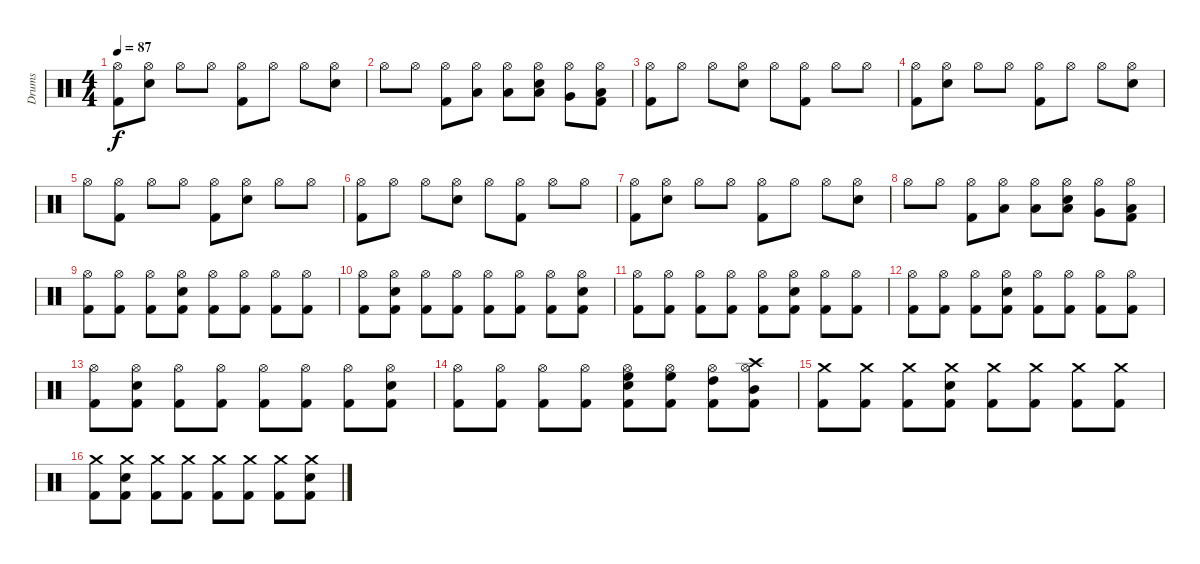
\track ("Drums" "Drums") {instrument percussion}
\staff {score}
\articulation defaults
\ts (4 4)
\tempo 87
\clef neutral
\ks c
("Hi-Hat (open)" "Kick (hit) 2").8{dy f} ("Hi-Hat (open)" "Electric Snare (hit)").8 "Hi-Hat (open)".8 "Hi-Hat (open)".8 ("Hi-Hat (open)" "Kick (hit) 2").8 "Hi-Hat (open)".8 "Hi-Hat (open)".8 ("Hi-Hat (open)" "Electric Snare (hit)").8 |
"Hi-Hat (open)".8 "Hi-Hat (open)".8 ("Hi-Hat (open)" "Kick (hit) 2").8 ("Hi-Hat (open)" "Low Floor Tom (hit)").8 ("Hi-Hat (open)" "Low Floor Tom (hit)").8 ("Hi-Hat (open)" "Electric Snare (hit)" "Low Floor Tom (hit)").8 ("Hi-Hat (open)" "Very Low Tom (hit)").8 ("Hi-Hat (open)" "Kick (hit) 2" "Low Tom (hit)").8 |
("Hi-Hat (open)" "Kick (hit) 2").8 "Hi-Hat (open)".8 "Hi-Hat (open)".8 ("Hi-Hat (open)" "Electric Snare (hit)").8 "Hi-Hat (open)".8 ("Hi-Hat (open)" "Kick (hit) 2").8 "Hi-Hat (open)".8 "Hi-Hat (open)".8 |
("Hi-Hat (open)" "Kick (hit) 2").8 ("Hi-Hat (open)" "Electric Snare (hit)").8 "Hi-Hat (open)".8 "Hi-Hat (open)".8 ("Hi-Hat (open)" "Kick (hit) 2").8 "Hi-Hat (open)".8 "Hi-Hat (open)".8 ("Hi-Hat (open)" "Electric Snare (hit)").8 |
"Hi-Hat (open)".8 ("Hi-Hat (open)" "Kick (hit) 2").8 "Hi-Hat (open)".8 "Hi-Hat (open)".8 ("Hi-Hat (open)" "Kick (hit) 2").8 ("Hi-Hat (open)" "Electric Snare (hit)").8 "Hi-Hat (open)".8 "Hi-Hat (open)".8 |
("Hi-Hat (open)" "Kick (hit) 2").8 "Hi-Hat (open)".8 "Hi-Hat (open)".8 ("Hi-Hat (open)" "Electric Snare (hit)").8 "Hi-Hat (open)".8 ("Hi-Hat (open)" "Kick (hit) 2").8 "Hi-Hat (open)".8 "Hi-Hat (open)".8 |
("Hi-Hat (open)" "Kick (hit) 2").8 ("Hi-Hat (open)" "Electric Snare (hit)").8 "Hi-Hat (open)".8 "Hi-Hat (open)".8 ("Hi-Hat (open)" "Kick (hit) 2").8 "Hi-Hat (open)".8 "Hi-Hat (open)".8 ("Hi-Hat (open)" "Electric Snare (hit)").8 |
"Hi-Hat (open)".8 "Hi-Hat (open)".8 ("Hi-Hat (open)" "Kick (hit) 2").8 ("Hi-Hat (open)" "Low Floor Tom (hit)").8 ("Hi-Hat (open)" "Low Floor Tom (hit)").8 ("Hi-Hat (open)" "Electric Snare (hit)" "Low Floor Tom (hit)").8 ("Hi-Hat (open)" "Very Low Tom (hit)").8 ("Hi-Hat (open)" "Kick (hit) 2" "Low Tom (hit)").8 |
("Hi-Hat (open)" "Kick (hit) 2").8 ("Hi-Hat (open)" "Kick (hit) 2").8 ("Hi-Hat (open)" "Kick (hit) 2").8 ("Hi-Hat (open)" "Kick (hit) 2" "Electric Snare (hit)").8 ("Hi-Hat (open)" "Kick (hit) 2").8 ("Hi-Hat (open)" "Kick (hit) 2").8 ("Hi-Hat (open)" "Kick (hit) 2").8 ("Hi-Hat (open)" "Kick (hit) 2").8 |
("Hi-Hat (open)" "Kick (hit) 2").8 ("Hi-Hat (open)" "Kick (hit) 2" "Electric Snare (hit)").8 ("Hi-Hat (open)" "Kick (hit) 2").8 ("Hi-Hat (open)" "Kick (hit) 2").8 ("Hi-Hat (open)" "Kick (hit) 2").8 ("Hi-Hat (open)" "Kick (hit) 2").8 ("Hi-Hat (open)" "Kick (hit) 2").8 ("Hi-Hat (open)" "Kick (hit) 2" "Electric Snare (hit)").8 |
("Hi-Hat (open)" "Kick (hit) 2").8 ("Hi-Hat (open)" "Kick (hit) 2").8 ("Hi-Hat (open)" "Kick (hit) 2").8 ("Hi-Hat (open)" "Kick (hit) 2").8 ("Hi-Hat (open)" "Kick (hit) 2").8 ("Hi-Hat (open)" "Kick (hit) 2" "Electric Snare (hit)").8 ("Hi-Hat (open)" "Kick (hit) 2").8 ("Hi-Hat (open)" "Kick (hit) 2").8 |
("Hi-Hat (open)" "Kick (hit) 2").8 ("Hi-Hat (open)" "Kick (hit) 2").8 ("Hi-Hat (open)" "Kick (hit) 2").8 ("Hi-Hat (open)" "Kick (hit) 2" "Electric Snare (hit)").8 ("Hi-Hat (open)" "Kick (hit) 2").8 ("Hi-Hat (open)" "Kick (hit) 2").8 ("Hi-Hat (open)" "Kick (hit) 2").8 ("Hi-Hat (open)" "Kick (hit) 2").8 |
("Hi-Hat (open)" "Kick (hit) 2").8 ("Hi-Hat (open)" "Kick (hit) 2" "Electric Snare (hit)").8 ("Hi-Hat (open)" "Kick (hit) 2").8 ("Hi-Hat (open)" "Kick (hit) 2").8 ("Hi-Hat (open)" "Kick (hit) 2").8 ("Hi-Hat (open)" "Kick (hit) 2").8 ("Hi-Hat (open)" "Kick (hit) 2").8 ("Hi-Hat (open)" "Kick (hit) 2" "Electric Snare (hit)").8 |
("Hi-Hat (open)" "Kick (hit) 2").8 ("Hi-Hat (open)" "Kick (hit) 2").8 ("Hi-Hat (open)" "Kick (hit) 2").8 ("Hi-Hat (open)" "Kick (hit) 2").8 ("Hi-Hat (open)" "Kick (hit) 2" "Electric Snare (hit)" "High Floor Tom (hit)").8 ("Hi-Hat (open)" "Kick (hit) 2" "High Floor Tom (hit)").8 ("Hi-Hat (open)" "Kick (hit) 2" "High Tom (hit)").8 ("Hi-Hat (open)" "Kick (hit) 2" "Crash high (hit)" "Mid Tom (hit)").8 |
("Crash medium (hit)" "Kick (hit) 2").8 ("Crash medium (hit)" "Kick (hit) 2").8 ("Crash medium (hit)" "Kick (hit) 2").8 ("Crash medium (hit)" "Kick (hit) 2" "Electric Snare (hit)").8 ("Crash medium (hit)" "Kick (hit) 2").8 ("Crash medium (hit)" "Kick (hit) 2").8 ("Crash medium (hit)" "Kick (hit) 2").8 ("Crash medium (hit)" "Kick (hit) 2").8 |
("Crash medium (hit)" "Kick (hit) 2").8 ("Crash medium (hit)" "Kick (hit) 2" "Electric Snare (hit)").8 ("Crash medium (hit)" "Kick (hit) 2").8 ("Crash medium (hit)" "Kick (hit) 2").8 ("Crash medium (hit)" "Kick (hit) 2").8 ("Crash medium (hit)" "Kick (hit) 2").8 ("Crash medium (hit)" "Kick (hit) 2").8 ("Crash medium (hit)" "Kick (hit) 2" "Electric Snare (hit)").8
